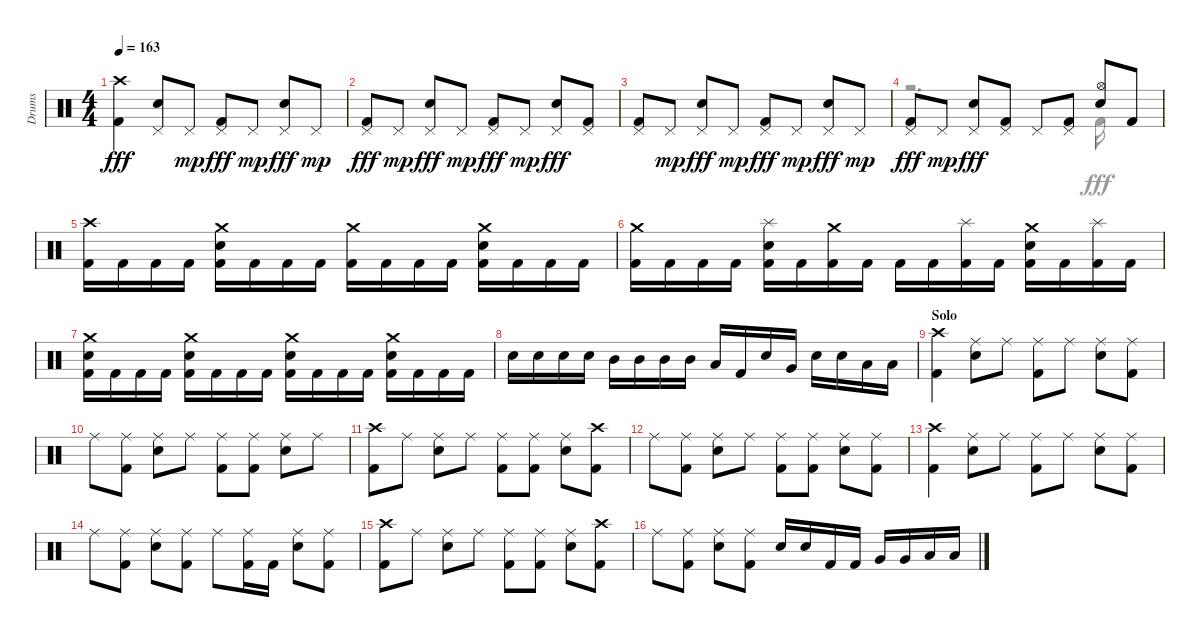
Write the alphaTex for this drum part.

\track ("Drums" "Drums") {instrument percussion}
\staff {score}
\articulation defaults
\voice
\ts (4 4)
\tempo 163
\clef neutral
\ks aminor
("Crash high (hit)" "Kick (hit) 2").4{dy fff} ("Pedal Hi-Hat (hit)" "Snare (hit) 2").8 "Pedal Hi-Hat (hit)".8{dy mp} ("Kick (hit) 2" "Pedal Hi-Hat (hit)").8{dy fff} "Pedal Hi-Hat (hit)".8{dy mp} ("Pedal Hi-Hat (hit)" "Snare (hit) 2").8{dy fff} "Pedal Hi-Hat (hit)".8{dy mp} |
("Kick (hit) 2" "Pedal Hi-Hat (hit)").8{dy fff} "Pedal Hi-Hat (hit)".8{dy mp} ("Snare (hit) 2" "Pedal Hi-Hat (hit)").8{dy fff} "Pedal Hi-Hat (hit)".8{dy mp} ("Kick (hit) 2" "Pedal Hi-Hat (hit)").8{dy fff} "Pedal Hi-Hat (hit)".8{dy mp} ("Pedal Hi-Hat (hit)" "Snare (hit) 2").8{dy fff} ("Pedal Hi-Hat (hit)" "Kick (hit) 2").8 |
("Kick (hit) 2" "Pedal Hi-Hat (hit)").8 "Pedal Hi-Hat (hit)".8{dy mp} ("Snare (hit) 2" "Pedal Hi-Hat (hit)").8{dy fff} "Pedal Hi-Hat (hit)".8{dy mp} ("Kick (hit) 2" "Pedal Hi-Hat (hit)").8{dy fff} "Pedal Hi-Hat (hit)".8{dy mp} ("Snare (hit) 2" "Pedal Hi-Hat (hit)").8{dy fff} "Pedal Hi-Hat (hit)".8{dy mp} |
("Pedal Hi-Hat (hit)" "Kick (hit) 2").8{dy fff} "Pedal Hi-Hat (hit)".8{dy mp} ("Pedal Hi-Hat (hit)" "Snare (hit) 2").8{dy fff} ("Pedal Hi-Hat (hit)" "Kick (hit) 2").8 "Pedal Hi-Hat (hit)".8 ("Pedal Hi-Hat (hit)" "Kick (hit) 2").8 ("Hi-Hat (open)" "Snare (hit) 2").8 "Kick (hit) 2".8 |
("Kick (hit) 2" "Crash high (hit)").16 "Kick (hit) 2".16 "Kick (hit) 2".16 "Kick (hit) 2".16 ("Kick (hit) 2" "Snare (hit) 2" "Crash medium (hit)").16 "Kick (hit) 2".16 "Kick (hit) 2".16 "Kick (hit) 2".16 ("Kick (hit) 2" "Crash medium (hit)").16 "Kick (hit) 2".16 "Kick (hit) 2".16 "Kick (hit) 2".16 ("Crash medium (hit)" "Kick (hit) 2" "Snare (hit) 2").16 "Kick (hit) 2".16 "Kick (hit) 2".16 "Kick (hit) 2".16 |
("Crash medium (hit)" "Kick (hit) 2").16 "Kick (hit) 2".16 "Kick (hit) 2".16 "Kick (hit) 2".16 ("Snare (hit) 2" "Kick (hit) 2" "Splash (hit)").16 "Kick (hit) 2".16 ("Kick (hit) 2" "Crash medium (hit)").16 "Kick (hit) 2".16 "Kick (hit) 2".16 "Kick (hit) 2".16 ("Kick (hit) 2" "Splash (hit)").16 "Kick (hit) 2".16 ("Snare (hit) 2" "Crash medium (hit)" "Kick (hit) 2").16 "Kick (hit) 2".16 ("Splash (hit)" "Kick (hit) 2").16 "Kick (hit) 2".16 |
("Crash medium (hit)" "Snare (hit) 2" "Kick (hit) 2").16 "Kick (hit) 2".16 "Kick (hit) 2".16 "Kick (hit) 2".16 ("Crash medium (hit)" "Kick (hit) 2" "Snare (hit) 2").16 "Kick (hit) 2".16 "Kick (hit) 2".16 "Kick (hit) 2".16 ("Crash medium (hit)" "Snare (hit) 2" "Kick (hit) 2").16 "Kick (hit) 2".16 "Kick (hit) 2".16 "Kick (hit) 2".16 ("Snare (hit) 2" "Crash medium (hit)" "Kick (hit) 2").16 "Kick (hit) 2".16 "Kick (hit) 2".16 "Kick (hit) 2".16 |
"Snare (hit) 2".16 "Snare (hit) 2".16 "Snare (hit) 2".16 "Snare (hit) 2".16 "Mid Tom (hit)".16 "Mid Tom (hit)".16 "Mid Tom (hit)".16 "Mid Tom (hit)".16 "Low Tom (hit)".16 "Kick (hit) 2".16 "Snare (hit) 2".16 "Very Low Tom (hit)".16 "Snare (hit) 2".16 "Snare (hit) 2".16 "Low Floor Tom (hit)".16 "Low Floor Tom (hit)".16 |
\section ("" "Solo")
("Crash high (hit)" "Kick (hit) 2").4 ("Snare (hit) 2" "Ride (middle)").8 "Ride (middle)".8 ("Kick (hit) 2" "Ride (middle)").8 "Ride (middle)".8 ("Snare (hit) 2" "Ride (middle)").8 ("Ride (middle)" "Kick (hit) 2").8 |
"Ride (middle)".8 ("Ride (middle)" "Kick (hit) 2").8 ("Ride (middle)" "Snare (hit) 2").8 "Ride (middle)".8 ("Ride (middle)" "Kick (hit) 2").8 ("Kick (hit) 2" "Ride (middle)").8 ("Ride (middle)" "Snare (hit) 2").8 "Ride (middle)".8 |
("Crash high (hit)" "Kick (hit) 2").8 "Ride (middle)".8 ("Ride (middle)" "Snare (hit) 2").8 "Ride (middle)".8 ("Kick (hit) 2" "Ride (middle)").8 ("Kick (hit) 2" "Ride (middle)").8 ("Ride (middle)" "Snare (hit) 2").8 ("Kick (hit) 2" "Crash high (hit)").8 |
"Ride (middle)".8 ("Kick (hit) 2" "Ride (middle)").8 ("Ride (middle)" "Snare (hit) 2").8 "Ride (middle)".8 ("Kick (hit) 2" "Ride (middle)").8 ("Kick (hit) 2" "Ride (middle)").8 ("Snare (hit) 2" "Ride (middle)").8 ("Kick (hit) 2" "Ride (middle)").8 |
("Crash high (hit)" "Kick (hit) 2").4 ("Snare (hit) 2" "Ride (middle)").8 "Ride (middle)".8 ("Ride (middle)" "Kick (hit) 2").8 "Ride (middle)".8 ("Snare (hit) 2" "Ride (middle)").8 ("Ride (middle)" "Kick (hit) 2").8 |
"Ride (middle)".8 ("Kick (hit) 2" "Ride (middle)").8 ("Snare (hit) 2" "Ride (middle)").8 ("Ride (middle)" "Kick (hit) 2").8 "Ride (middle)".8 ("Ride (middle)" "Kick (hit) 2").16 "Kick (hit) 2".16 ("Snare (hit) 2" "Ride (middle)").8 ("Ride (middle)" "Kick (hit) 2").8 |
("Crash high (hit)" "Kick (hit) 2").8 "Ride (middle)".8 ("Ride (middle)" "Snare (hit) 2").8 "Ride (middle)".8 ("Ride (middle)" "Kick (hit) 2").8 ("Ride (middle)" "Kick (hit) 2").8 ("Snare (hit) 2" "Ride (middle)").8 ("Crash high (hit)" "Kick (hit) 2").8 |
"Ride (middle)".8 ("Kick (hit) 2" "Ride (middle)").8 ("Ride (middle)" "Snare (hit) 2").8 ("Kick (hit) 2" "Ride (middle)").8 "Snare (hit) 2".16 "Snare (hit) 2".16 "Kick (hit) 2".16 "Kick (hit) 2".16 "Very Low Tom (hit)".16 "Very Low Tom (hit)".16 "Low Floor Tom (hit)".16 "Low Floor Tom (hit)".16
\voice
\clef neutral
\ottava regular
\simile none
\ks aminor
|
|
|
r.2{d} "Kick (hit) 2".16 |
|
|
|
|
|
|
|
|
|
|
|
